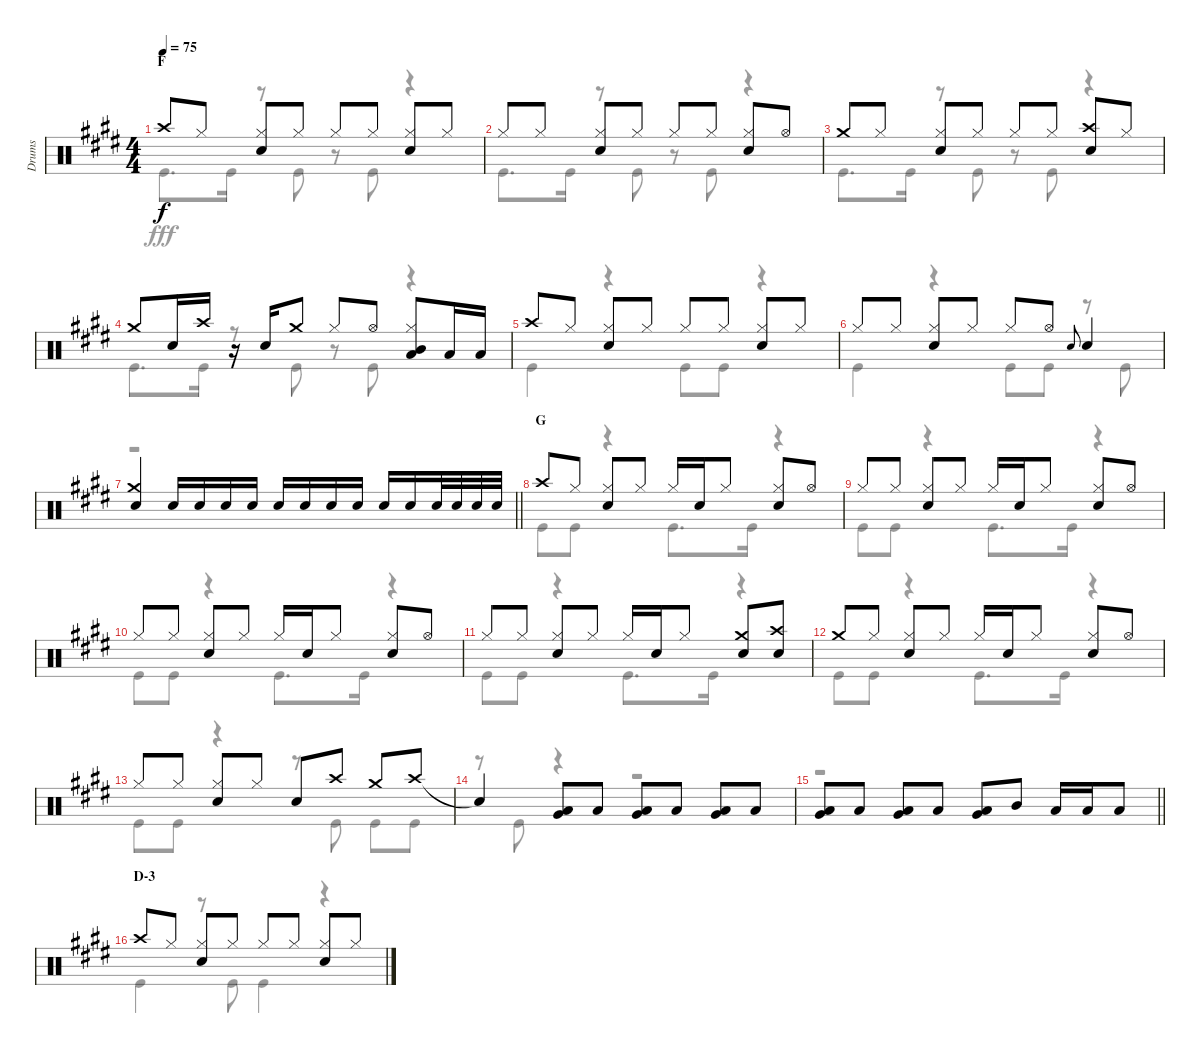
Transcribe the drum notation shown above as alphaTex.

\track ("Drums" "Drums") {instrument percussion}
\staff {score}
\articulation defaults
\voice
\ts (4 4)
\section ("" "F")
\tempo 75
\clef neutral
\ks e "Crash high (hit)".8{dy f} "Hi-Hat (closed)".8
("Hi-Hat (closed)" "Snare (hit) 2").8 "Hi-Hat (closed)".8 "Hi-Hat (closed)".8 "Hi-Hat (closed)".8 ("Hi-Hat (closed)" "Snare (hit) 2").8 "Hi-Hat (closed)".8 |
"Hi-Hat (closed)".8 "Hi-Hat (closed)".8 ("Hi-Hat (closed)" "Snare (hit) 2").8 "Hi-Hat (closed)".8 "Hi-Hat (closed)".8 "Hi-Hat (closed)".8 ("Hi-Hat (closed)" "Snare (hit) 2").8 "Hi-Hat (open)".8 |
"Crash medium (hit)".8 "Hi-Hat (closed)".8 ("Hi-Hat (closed)" "Snare (hit) 2").8 "Hi-Hat (closed)".8 "Hi-Hat (closed)".8 "Hi-Hat (closed)".8 ("Crash high (hit)" "Snare (hit) 2").8 "Hi-Hat (closed)".8 |
"Crash medium (hit)".8 "Snare (hit) 2".16 "Crash high (hit)".16 r.16 "Snare (hit) 2".16 "Crash medium (hit)".8 "Hi-Hat (closed)".8 "Hi-Hat (open)".8 ("Hi-Hat (closed)" "Mid Tom (hit)" "Low Tom (hit)").8 "Low Tom (hit)".16 "Low Tom (hit)".16 |
"Crash high (hit)".8 "Hi-Hat (closed)".8 ("Hi-Hat (closed)" "Snare (hit) 2").8 "Hi-Hat (closed)".8 "Hi-Hat (closed)".8 "Hi-Hat (closed)".8 ("Hi-Hat (closed)" "Snare (hit) 2").8 "Hi-Hat (closed)".8 |
"Hi-Hat (closed)".8 "Hi-Hat (closed)".8 ("Hi-Hat (closed)" "Snare (hit) 2").8 "Hi-Hat (closed)".8 "Hi-Hat (closed)".8 "Hi-Hat (open)".8 "Snare (hit) 2".8{gr onbeat} "Snare (hit) 2".4 |
\barLineRight lightlight
("Crash medium (hit)" "Snare (hit) 2").4 "Snare (hit) 2".16 "Snare (hit) 2".16 "Snare (hit) 2".16 "Snare (hit) 2".16 "Snare (hit) 2".16 "Snare (hit) 2".16 "Snare (hit) 2".16 "Snare (hit) 2".16 "Snare (hit) 2".16 "Snare (hit) 2".16 "Snare (hit) 2".32 "Snare (hit) 2".32 "Snare (hit) 2".32 "Snare (hit) 2".32 |
\section ("" "G")
"Crash high (hit)".8 "Hi-Hat (closed)".8 ("Hi-Hat (closed)" "Snare (hit) 2").8 "Hi-Hat (closed)".8 "Hi-Hat (closed)".16 "Snare (hit) 2".16 "Hi-Hat (closed)".8 ("Hi-Hat (closed)" "Snare (hit) 2").8 "Hi-Hat (open)".8 |
"Hi-Hat (closed)".8 "Hi-Hat (closed)".8 ("Hi-Hat (closed)" "Snare (hit) 2").8 "Hi-Hat (closed)".8 "Hi-Hat (closed)".16 "Snare (hit) 2".16 "Hi-Hat (closed)".8 ("Hi-Hat (closed)" "Snare (hit) 2").8 "Hi-Hat (open)".8 |
"Hi-Hat (closed)".8 "Hi-Hat (closed)".8 ("Hi-Hat (closed)" "Snare (hit) 2").8 "Hi-Hat (closed)".8 "Hi-Hat (closed)".16 "Snare (hit) 2".16 "Hi-Hat (closed)".8 ("Hi-Hat (closed)" "Snare (hit) 2").8 "Hi-Hat (open)".8 |
"Hi-Hat (closed)".8 "Hi-Hat (closed)".8 ("Hi-Hat (closed)" "Snare (hit) 2").8 "Hi-Hat (closed)".8 "Hi-Hat (closed)".16 "Snare (hit) 2".16 "Hi-Hat (closed)".8 ("Crash medium (hit)" "Snare (hit) 2").8 ("Crash high (hit)" "Snare (hit) 2").8 |
"Crash medium (hit)".8 "Hi-Hat (closed)".8 ("Hi-Hat (closed)" "Snare (hit) 2").8 "Hi-Hat (closed)".8 "Hi-Hat (closed)".16 "Snare (hit) 2".16 "Hi-Hat (closed)".8 ("Hi-Hat (closed)" "Snare (hit) 2").8 "Hi-Hat (open)".8 |
"Hi-Hat (closed)".8 "Hi-Hat (closed)".8 ("Hi-Hat (closed)" "Snare (hit) 2").8 "Hi-Hat (closed)".8 "Snare (hit) 2".8 "Crash high (hit)".8 "Crash medium (hit)".8 "Crash high (hit)".8 |
"Snare (hit)"{t}.4 ("Low Tom (hit)" "Very Low Tom (hit)").8 "Low Tom (hit)".8 ("Low Tom (hit)" "Very Low Tom (hit)").8 "Low Tom (hit)".8 ("Low Tom (hit)" "Very Low Tom (hit)").8 "Low Tom (hit)".8 |
\barLineRight lightlight
("Low Tom (hit)" "Very Low Tom (hit)").8 "Low Tom (hit)".8 ("Low Tom (hit)" "Very Low Tom (hit)").8 "Low Tom (hit)".8 ("Low Tom (hit)" "Very Low Tom (hit)").8 "Mid Tom (hit)".8 "Low Tom (hit)".16 "Low Tom (hit)".16 "Low Tom (hit)".8 |
\section ("" "D-3")
"Crash high (hit)".8 "Hi-Hat (closed)".8 ("Hi-Hat (closed)" "Snare (hit) 2").8 "Hi-Hat (closed)".8 "Hi-Hat (closed)".8 "Hi-Hat (closed)".8 ("Hi-Hat (closed)" "Snare (hit) 2").8 "Hi-Hat (closed)".8
\voice
\clef neutral
\ottava regular
\simile none
\ks e "Kick (hit)".8{d dy fff} "Kick (hit)".16
r.8 "Kick (hit)".8 r.8 "Kick (hit)".8 r.4 |
"Kick (hit)".8{d} "Kick (hit)".16 r.8 "Kick (hit)".8 r.8 "Kick (hit)".8 r.4 |
"Kick (hit)".8{d} "Kick (hit)".16 r.8 "Kick (hit)".8 r.8 "Kick (hit)".8 r.4 |
"Kick (hit)".8{d} "Kick (hit)".16 r.8 "Kick (hit)".8 r.8 "Kick (hit)".8 r.4 |
"Kick (hit)".4 r.4 "Kick (hit)".8 "Kick (hit)".8 r.4 |
"Kick (hit)".4 r.4 "Kick (hit)".8 "Kick (hit)".8 r.8 "Kick (hit)".8 |
\barLineRight lightlight
r.1 |
"Kick (hit)".8 "Kick (hit)".8 r.4 "Kick (hit)".8{d} "Kick (hit)".16 r.4 |
"Kick (hit)".8 "Kick (hit)".8 r.4 "Kick (hit)".8{d} "Kick (hit)".16 r.4 |
"Kick (hit)".8 "Kick (hit)".8 r.4 "Kick (hit)".8{d} "Kick (hit)".16 r.4 |
"Kick (hit)".8 "Kick (hit)".8 r.4 "Kick (hit)".8{d} "Kick (hit)".16 r.4 |
"Kick (hit)".8 "Kick (hit)".8 r.4 "Kick (hit)".8{d} "Kick (hit)".16 r.4 |
"Kick (hit)".8 "Kick (hit)".8 r.4 r.8 "Kick (hit)".8 "Kick (hit)".8 "Kick (hit)".8 |
r.8 "Kick (hit)".8 r.4 r.2 |
\barLineRight lightlight
r.1 |
"Kick (hit)".4 r.8 "Kick (hit)".8 "Kick (hit)".4 r.4
